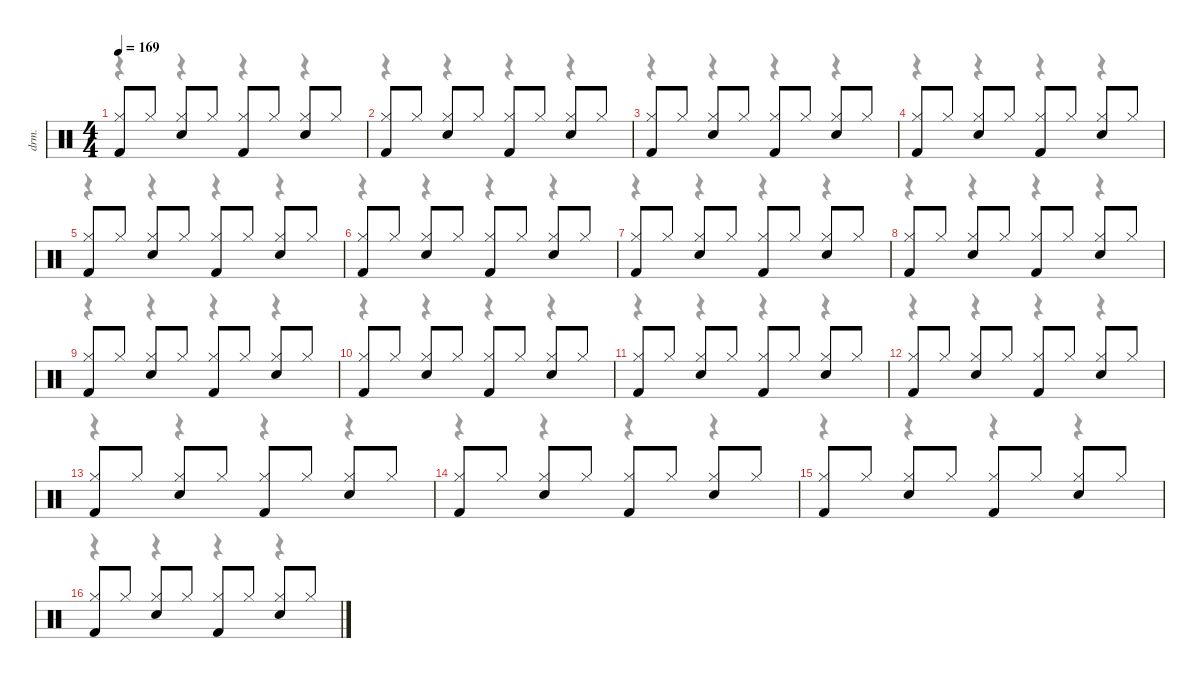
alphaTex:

\defaultSystemsLayout 4
\hideDynamics
\bracketExtendMode nobrackets
\otherSystemsTrackNameOrientation horizontal
\track ("Drums" "drm.") {instrument percussion}
\staff {score}
\articulation defaults
\voice
\ts (4 4)
\tempo 169
\clef neutral
\ks c
("Hi-Hat (closed)" "Kick (hit) 2").8{dy f} "Hi-Hat (closed)".8 ("Hi-Hat (closed)" "Snare (hit) 2").8 "Hi-Hat (closed)".8 ("Hi-Hat (closed)" "Kick (hit) 2").8 "Hi-Hat (closed)".8 ("Hi-Hat (closed)" "Snare (hit) 2").8 "Hi-Hat (closed)".8 |
("Hi-Hat (closed)" "Kick (hit) 2").8 "Hi-Hat (closed)".8 ("Hi-Hat (closed)" "Snare (hit) 2").8 "Hi-Hat (closed)".8 ("Hi-Hat (closed)" "Kick (hit) 2").8 "Hi-Hat (closed)".8 ("Hi-Hat (closed)" "Snare (hit) 2").8 "Hi-Hat (closed)".8 |
("Hi-Hat (closed)" "Kick (hit) 2").8 "Hi-Hat (closed)".8 ("Hi-Hat (closed)" "Snare (hit) 2").8 "Hi-Hat (closed)".8 ("Hi-Hat (closed)" "Kick (hit) 2").8 "Hi-Hat (closed)".8 ("Hi-Hat (closed)" "Snare (hit) 2").8 "Hi-Hat (closed)".8 |
("Hi-Hat (closed)" "Kick (hit) 2").8 "Hi-Hat (closed)".8 ("Hi-Hat (closed)" "Snare (hit) 2").8 "Hi-Hat (closed)".8 ("Hi-Hat (closed)" "Kick (hit) 2").8 "Hi-Hat (closed)".8 ("Hi-Hat (closed)" "Snare (hit) 2").8 "Hi-Hat (closed)".8 |
("Hi-Hat (closed)" "Kick (hit) 2").8 "Hi-Hat (closed)".8 ("Hi-Hat (closed)" "Snare (hit) 2").8 "Hi-Hat (closed)".8 ("Hi-Hat (closed)" "Kick (hit) 2").8 "Hi-Hat (closed)".8 ("Hi-Hat (closed)" "Snare (hit) 2").8 "Hi-Hat (closed)".8 |
("Hi-Hat (closed)" "Kick (hit) 2").8 "Hi-Hat (closed)".8 ("Hi-Hat (closed)" "Snare (hit) 2").8 "Hi-Hat (closed)".8 ("Hi-Hat (closed)" "Kick (hit) 2").8 "Hi-Hat (closed)".8 ("Hi-Hat (closed)" "Snare (hit) 2").8 "Hi-Hat (closed)".8 |
("Hi-Hat (closed)" "Kick (hit) 2").8 "Hi-Hat (closed)".8 ("Hi-Hat (closed)" "Snare (hit) 2").8 "Hi-Hat (closed)".8 ("Hi-Hat (closed)" "Kick (hit) 2").8 "Hi-Hat (closed)".8 ("Hi-Hat (closed)" "Snare (hit) 2").8 "Hi-Hat (closed)".8 |
("Hi-Hat (closed)" "Kick (hit) 2").8 "Hi-Hat (closed)".8 ("Hi-Hat (closed)" "Snare (hit) 2").8 "Hi-Hat (closed)".8 ("Hi-Hat (closed)" "Kick (hit) 2").8 "Hi-Hat (closed)".8 ("Hi-Hat (closed)" "Snare (hit) 2").8 "Hi-Hat (closed)".8 |
("Hi-Hat (closed)" "Kick (hit) 2").8 "Hi-Hat (closed)".8 ("Hi-Hat (closed)" "Snare (hit) 2").8 "Hi-Hat (closed)".8 ("Hi-Hat (closed)" "Kick (hit) 2").8 "Hi-Hat (closed)".8 ("Hi-Hat (closed)" "Snare (hit) 2").8 "Hi-Hat (closed)".8 |
("Hi-Hat (closed)" "Kick (hit) 2").8 "Hi-Hat (closed)".8 ("Hi-Hat (closed)" "Snare (hit) 2").8 "Hi-Hat (closed)".8 ("Hi-Hat (closed)" "Kick (hit) 2").8 "Hi-Hat (closed)".8 ("Hi-Hat (closed)" "Snare (hit) 2").8 "Hi-Hat (closed)".8 |
("Hi-Hat (closed)" "Kick (hit) 2").8 "Hi-Hat (closed)".8 ("Hi-Hat (closed)" "Snare (hit) 2").8 "Hi-Hat (closed)".8 ("Hi-Hat (closed)" "Kick (hit) 2").8 "Hi-Hat (closed)".8 ("Hi-Hat (closed)" "Snare (hit) 2").8 "Hi-Hat (closed)".8 |
("Hi-Hat (closed)" "Kick (hit) 2").8 "Hi-Hat (closed)".8 ("Hi-Hat (closed)" "Snare (hit) 2").8 "Hi-Hat (closed)".8 ("Hi-Hat (closed)" "Kick (hit) 2").8 "Hi-Hat (closed)".8 ("Hi-Hat (closed)" "Snare (hit) 2").8 "Hi-Hat (closed)".8 |
("Hi-Hat (closed)" "Kick (hit) 2").8 "Hi-Hat (closed)".8 ("Hi-Hat (closed)" "Snare (hit) 2").8 "Hi-Hat (closed)".8 ("Hi-Hat (closed)" "Kick (hit) 2").8 "Hi-Hat (closed)".8 ("Hi-Hat (closed)" "Snare (hit) 2").8 "Hi-Hat (closed)".8 |
("Hi-Hat (closed)" "Kick (hit) 2").8 "Hi-Hat (closed)".8 ("Hi-Hat (closed)" "Snare (hit) 2").8 "Hi-Hat (closed)".8 ("Hi-Hat (closed)" "Kick (hit) 2").8 "Hi-Hat (closed)".8 ("Hi-Hat (closed)" "Snare (hit) 2").8 "Hi-Hat (closed)".8 |
("Hi-Hat (closed)" "Kick (hit) 2").8 "Hi-Hat (closed)".8 ("Hi-Hat (closed)" "Snare (hit) 2").8 "Hi-Hat (closed)".8 ("Hi-Hat (closed)" "Kick (hit) 2").8 "Hi-Hat (closed)".8 ("Hi-Hat (closed)" "Snare (hit) 2").8 "Hi-Hat (closed)".8 |
("Hi-Hat (closed)" "Kick (hit) 2").8 "Hi-Hat (closed)".8 ("Hi-Hat (closed)" "Snare (hit) 2").8 "Hi-Hat (closed)".8 ("Hi-Hat (closed)" "Kick (hit) 2").8 "Hi-Hat (closed)".8 ("Hi-Hat (closed)" "Snare (hit) 2").8 "Hi-Hat (closed)".8
\voice
\clef neutral
\ottava regular
\simile none
\ks c
r.4{dy mf} r.4 r.4 r.4 |
r.4 r.4 r.4 r.4 |
r.4 r.4 r.4 r.4 |
r.4 r.4 r.4 r.4 |
r.4 r.4 r.4 r.4 |
r.4 r.4 r.4 r.4 |
r.4 r.4 r.4 r.4 |
r.4 r.4 r.4 r.4 |
r.4 r.4 r.4 r.4 |
r.4 r.4 r.4 r.4 |
r.4 r.4 r.4 r.4 |
r.4 r.4 r.4 r.4 |
r.4 r.4 r.4 r.4 |
r.4 r.4 r.4 r.4 |
r.4 r.4 r.4 r.4 |
r.4 r.4 r.4 r.4
